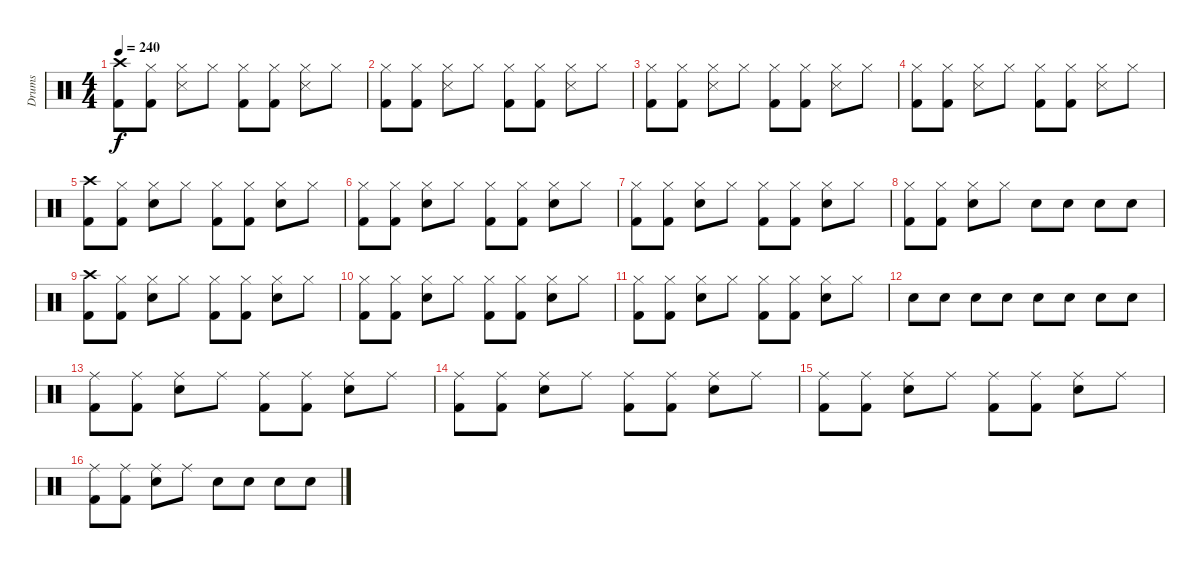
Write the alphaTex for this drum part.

\track ("Drums" "Drums") {instrument percussion}
\staff {score}
\articulation defaults
\ts (4 4)
\tempo 240
\clef neutral
\ks c
("Crash high (hit)" "Kick (hit) 2").8{dy f} ("Hi-Hat (closed)" "Kick (hit) 2").8 ("Hi-Hat (closed)" "Snare (side stick) 3").8 "Hi-Hat (closed)".8 ("Hi-Hat (closed)" "Kick (hit) 2").8 ("Hi-Hat (closed)" "Kick (hit) 2").8 ("Hi-Hat (closed)" "Snare (side stick) 3").8 "Hi-Hat (closed)".8 |
("Hi-Hat (closed)" "Kick (hit) 2").8 ("Hi-Hat (closed)" "Kick (hit) 2").8 ("Hi-Hat (closed)" "Snare (side stick) 3").8 "Hi-Hat (closed)".8 ("Hi-Hat (closed)" "Kick (hit) 2").8 ("Hi-Hat (closed)" "Kick (hit) 2").8 ("Hi-Hat (closed)" "Snare (side stick) 3").8 "Hi-Hat (closed)".8 |
("Hi-Hat (closed)" "Kick (hit) 2").8 ("Hi-Hat (closed)" "Kick (hit) 2").8 ("Hi-Hat (closed)" "Snare (side stick) 3").8 "Hi-Hat (closed)".8 ("Hi-Hat (closed)" "Kick (hit) 2").8 ("Hi-Hat (closed)" "Kick (hit) 2").8 ("Hi-Hat (closed)" "Snare (side stick) 3").8 "Hi-Hat (closed)".8 |
("Hi-Hat (closed)" "Kick (hit) 2").8 ("Hi-Hat (closed)" "Kick (hit) 2").8 ("Hi-Hat (closed)" "Snare (side stick) 3").8 "Hi-Hat (closed)".8 ("Hi-Hat (closed)" "Kick (hit) 2").8 ("Hi-Hat (closed)" "Kick (hit) 2").8 ("Hi-Hat (closed)" "Snare (side stick) 3").8 "Hi-Hat (closed)".8 |
("Crash high (hit)" "Kick (hit) 2").8 ("Hi-Hat (closed)" "Kick (hit) 2").8 ("Hi-Hat (closed)" "Snare (hit) 2").8 "Hi-Hat (closed)".8 ("Hi-Hat (closed)" "Kick (hit) 2").8 ("Hi-Hat (closed)" "Kick (hit) 2").8 ("Hi-Hat (closed)" "Snare (hit) 2").8 "Hi-Hat (closed)".8 |
("Hi-Hat (closed)" "Kick (hit) 2").8 ("Hi-Hat (closed)" "Kick (hit) 2").8 ("Hi-Hat (closed)" "Snare (hit) 2").8 "Hi-Hat (closed)".8 ("Hi-Hat (closed)" "Kick (hit) 2").8 ("Hi-Hat (closed)" "Kick (hit) 2").8 ("Hi-Hat (closed)" "Snare (hit) 2").8 "Hi-Hat (closed)".8 |
("Hi-Hat (closed)" "Kick (hit) 2").8 ("Hi-Hat (closed)" "Kick (hit) 2").8 ("Hi-Hat (closed)" "Snare (hit) 2").8 "Hi-Hat (closed)".8 ("Hi-Hat (closed)" "Kick (hit) 2").8 ("Hi-Hat (closed)" "Kick (hit) 2").8 ("Hi-Hat (closed)" "Snare (hit) 2").8 "Hi-Hat (closed)".8 |
("Hi-Hat (closed)" "Kick (hit) 2").8 ("Hi-Hat (closed)" "Kick (hit) 2").8 ("Hi-Hat (closed)" "Snare (hit) 2").8 "Hi-Hat (closed)".8 "Snare (hit) 2".8 "Snare (hit) 2".8 "Snare (hit) 2".8 "Snare (hit) 2".8 |
("Crash high (hit)" "Kick (hit) 2").8 ("Hi-Hat (closed)" "Kick (hit) 2").8 ("Hi-Hat (closed)" "Snare (hit) 2").8 "Hi-Hat (closed)".8 ("Hi-Hat (closed)" "Kick (hit) 2").8 ("Hi-Hat (closed)" "Kick (hit) 2").8 ("Hi-Hat (closed)" "Snare (hit) 2").8 "Hi-Hat (closed)".8 |
("Hi-Hat (closed)" "Kick (hit) 2").8 ("Hi-Hat (closed)" "Kick (hit) 2").8 ("Hi-Hat (closed)" "Snare (hit) 2").8 "Hi-Hat (closed)".8 ("Hi-Hat (closed)" "Kick (hit) 2").8 ("Hi-Hat (closed)" "Kick (hit) 2").8 ("Hi-Hat (closed)" "Snare (hit) 2").8 "Hi-Hat (closed)".8 |
("Hi-Hat (closed)" "Kick (hit) 2").8 ("Hi-Hat (closed)" "Kick (hit) 2").8 ("Hi-Hat (closed)" "Snare (hit) 2").8 "Hi-Hat (closed)".8 ("Hi-Hat (closed)" "Kick (hit) 2").8 ("Hi-Hat (closed)" "Kick (hit) 2").8 ("Hi-Hat (closed)" "Snare (hit) 2").8 "Hi-Hat (closed)".8 |
"Snare (hit) 2".8 "Snare (hit) 2".8 "Snare (hit) 2".8 "Snare (hit) 2".8 "Snare (hit) 2".8 "Snare (hit) 2".8 "Snare (hit) 2".8 "Snare (hit) 2".8 |
("Ride (middle)" "Kick (hit) 2").8 ("Ride (middle)" "Kick (hit) 2").8 ("Ride (middle)" "Snare (hit) 2").8 "Ride (middle)".8 ("Ride (middle)" "Kick (hit) 2").8 ("Ride (middle)" "Kick (hit) 2").8 ("Ride (middle)" "Snare (hit) 2").8 "Ride (middle)".8 |
("Ride (middle)" "Kick (hit) 2").8 ("Ride (middle)" "Kick (hit) 2").8 ("Ride (middle)" "Snare (hit) 2").8 "Ride (middle)".8 ("Ride (middle)" "Kick (hit) 2").8 ("Ride (middle)" "Kick (hit) 2").8 ("Ride (middle)" "Snare (hit) 2").8 "Ride (middle)".8 |
("Ride (middle)" "Kick (hit) 2").8 ("Ride (middle)" "Kick (hit) 2").8 ("Ride (middle)" "Snare (hit) 2").8 "Ride (middle)".8 ("Ride (middle)" "Kick (hit) 2").8 ("Ride (middle)" "Kick (hit) 2").8 ("Ride (middle)" "Snare (hit) 2").8 "Ride (middle)".8 |
("Ride (middle)" "Kick (hit) 2").8 ("Ride (middle)" "Kick (hit) 2").8 ("Ride (middle)" "Snare (hit) 2").8 "Ride (middle)".8 "Snare (hit) 2".8 "Snare (hit) 2".8 "Snare (hit) 2".8 "Snare (hit) 2".8
